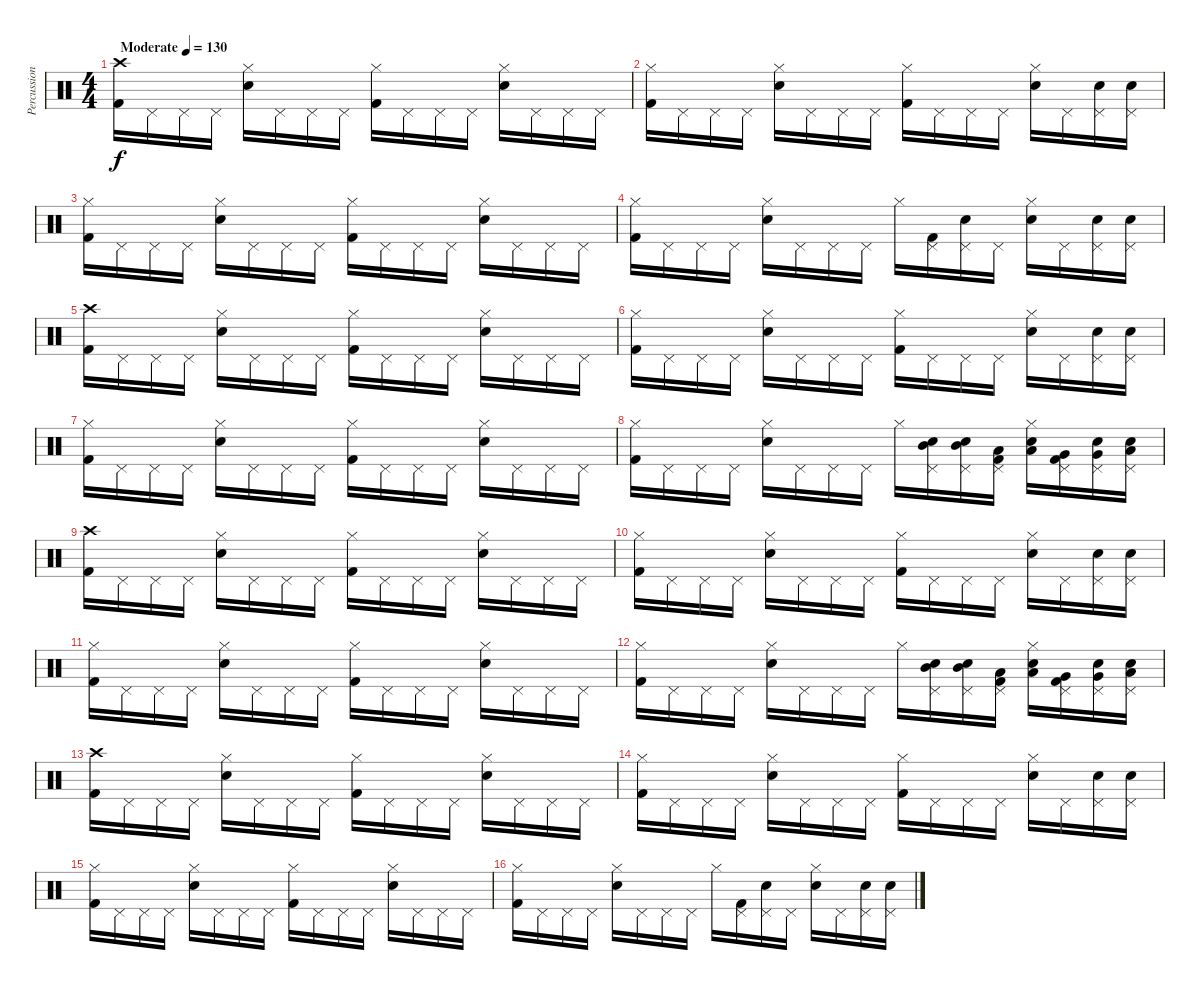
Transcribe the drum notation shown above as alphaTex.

\track ("Percussion" "Percussion") {instrument percussion}
\staff {score}
\articulation defaults
\ts (4 4)
\tempo (130 "Moderate")
\clef neutral
\ks c
("Crash high (hit)" "Kick (hit) 2").16{dy f} "Pedal Hi-Hat (hit)".16 "Pedal Hi-Hat (hit)".16 "Pedal Hi-Hat (hit)".16 ("Hi-Hat (closed)" "Snare (hit) 2").16 "Pedal Hi-Hat (hit)".16 "Pedal Hi-Hat (hit)".16 "Pedal Hi-Hat (hit)".16 ("Hi-Hat (closed)" "Kick (hit) 2").16 "Pedal Hi-Hat (hit)".16 "Pedal Hi-Hat (hit)".16 "Pedal Hi-Hat (hit)".16 ("Hi-Hat (closed)" "Snare (hit) 2").16 "Pedal Hi-Hat (hit)".16 "Pedal Hi-Hat (hit)".16 "Pedal Hi-Hat (hit)".16 |
("Hi-Hat (closed)" "Kick (hit) 2").16 "Pedal Hi-Hat (hit)".16 "Pedal Hi-Hat (hit)".16 "Pedal Hi-Hat (hit)".16 ("Hi-Hat (closed)" "Snare (hit) 2").16 "Pedal Hi-Hat (hit)".16 "Pedal Hi-Hat (hit)".16 "Pedal Hi-Hat (hit)".16 ("Hi-Hat (closed)" "Kick (hit) 2").16 "Pedal Hi-Hat (hit)".16 "Pedal Hi-Hat (hit)".16 "Pedal Hi-Hat (hit)".16 ("Hi-Hat (closed)" "Snare (hit) 2").16 "Pedal Hi-Hat (hit)".16 ("Pedal Hi-Hat (hit)" "Snare (hit) 2").16 ("Pedal Hi-Hat (hit)" "Snare (hit) 2").16 |
("Hi-Hat (closed)" "Kick (hit) 2").16 "Pedal Hi-Hat (hit)".16 "Pedal Hi-Hat (hit)".16 "Pedal Hi-Hat (hit)".16 ("Hi-Hat (closed)" "Snare (hit) 2").16 "Pedal Hi-Hat (hit)".16 "Pedal Hi-Hat (hit)".16 "Pedal Hi-Hat (hit)".16 ("Hi-Hat (closed)" "Kick (hit) 2").16 "Pedal Hi-Hat (hit)".16 "Pedal Hi-Hat (hit)".16 "Pedal Hi-Hat (hit)".16 ("Hi-Hat (closed)" "Snare (hit) 2").16 "Pedal Hi-Hat (hit)".16 "Pedal Hi-Hat (hit)".16 "Pedal Hi-Hat (hit)".16 |
("Hi-Hat (closed)" "Kick (hit) 2").16 "Pedal Hi-Hat (hit)".16 "Pedal Hi-Hat (hit)".16 "Pedal Hi-Hat (hit)".16 ("Hi-Hat (closed)" "Snare (hit) 2").16 "Pedal Hi-Hat (hit)".16 "Pedal Hi-Hat (hit)".16 "Pedal Hi-Hat (hit)".16 "Hi-Hat (closed)".16 ("Pedal Hi-Hat (hit)" "Kick (hit) 2").16 ("Pedal Hi-Hat (hit)" "Snare (hit) 2").16 "Pedal Hi-Hat (hit)".16 ("Hi-Hat (closed)" "Snare (hit) 2").16 "Pedal Hi-Hat (hit)".16 ("Pedal Hi-Hat (hit)" "Snare (hit) 2").16 ("Pedal Hi-Hat (hit)" "Snare (hit) 2").16 |
("Crash high (hit)" "Kick (hit) 2").16 "Pedal Hi-Hat (hit)".16 "Pedal Hi-Hat (hit)".16 "Pedal Hi-Hat (hit)".16 ("Hi-Hat (closed)" "Snare (hit) 2").16 "Pedal Hi-Hat (hit)".16 "Pedal Hi-Hat (hit)".16 "Pedal Hi-Hat (hit)".16 ("Hi-Hat (closed)" "Kick (hit) 2").16 "Pedal Hi-Hat (hit)".16 "Pedal Hi-Hat (hit)".16 "Pedal Hi-Hat (hit)".16 ("Hi-Hat (closed)" "Snare (hit) 2").16 "Pedal Hi-Hat (hit)".16 "Pedal Hi-Hat (hit)".16 "Pedal Hi-Hat (hit)".16 |
("Hi-Hat (closed)" "Kick (hit) 2").16 "Pedal Hi-Hat (hit)".16 "Pedal Hi-Hat (hit)".16 "Pedal Hi-Hat (hit)".16 ("Hi-Hat (closed)" "Snare (hit) 2").16 "Pedal Hi-Hat (hit)".16 "Pedal Hi-Hat (hit)".16 "Pedal Hi-Hat (hit)".16 ("Hi-Hat (closed)" "Kick (hit) 2").16 "Pedal Hi-Hat (hit)".16 "Pedal Hi-Hat (hit)".16 "Pedal Hi-Hat (hit)".16 ("Hi-Hat (closed)" "Snare (hit) 2").16 "Pedal Hi-Hat (hit)".16 ("Pedal Hi-Hat (hit)" "Snare (hit) 2").16 ("Pedal Hi-Hat (hit)" "Snare (hit) 2").16 |
("Hi-Hat (closed)" "Kick (hit) 2").16 "Pedal Hi-Hat (hit)".16 "Pedal Hi-Hat (hit)".16 "Pedal Hi-Hat (hit)".16 ("Hi-Hat (closed)" "Snare (hit) 2").16 "Pedal Hi-Hat (hit)".16 "Pedal Hi-Hat (hit)".16 "Pedal Hi-Hat (hit)".16 ("Hi-Hat (closed)" "Kick (hit) 2").16 "Pedal Hi-Hat (hit)".16 "Pedal Hi-Hat (hit)".16 "Pedal Hi-Hat (hit)".16 ("Hi-Hat (closed)" "Snare (hit) 2").16 "Pedal Hi-Hat (hit)".16 "Pedal Hi-Hat (hit)".16 "Pedal Hi-Hat (hit)".16 |
("Hi-Hat (closed)" "Kick (hit) 2").16 "Pedal Hi-Hat (hit)".16 "Pedal Hi-Hat (hit)".16 "Pedal Hi-Hat (hit)".16 ("Hi-Hat (closed)" "Snare (hit) 2").16 "Pedal Hi-Hat (hit)".16 "Pedal Hi-Hat (hit)".16 "Pedal Hi-Hat (hit)".16 "Hi-Hat (closed)".16 ("Pedal Hi-Hat (hit)" "Mid Tom (hit)" "Snare (hit) 2").16 ("Pedal Hi-Hat (hit)" "Mid Tom (hit)" "Snare (hit) 2").16 ("Pedal Hi-Hat (hit)" "Low Tom (hit)" "Kick (hit) 2").16 ("Hi-Hat (closed)" "Low Tom (hit)" "Snare (hit) 2").16 ("Pedal Hi-Hat (hit)" "Very Low Tom (hit)" "Kick (hit) 2").16 ("Pedal Hi-Hat (hit)" "Very Low Tom (hit)" "Snare (hit) 2").16 ("Pedal Hi-Hat (hit)" "Low Floor Tom (hit)" "Snare (hit) 2").16 |
("Crash high (hit)" "Kick (hit) 2").16 "Pedal Hi-Hat (hit)".16 "Pedal Hi-Hat (hit)".16 "Pedal Hi-Hat (hit)".16 ("Hi-Hat (closed)" "Snare (hit) 2").16 "Pedal Hi-Hat (hit)".16 "Pedal Hi-Hat (hit)".16 "Pedal Hi-Hat (hit)".16 ("Hi-Hat (closed)" "Kick (hit) 2").16 "Pedal Hi-Hat (hit)".16 "Pedal Hi-Hat (hit)".16 "Pedal Hi-Hat (hit)".16 ("Hi-Hat (closed)" "Snare (hit) 2").16 "Pedal Hi-Hat (hit)".16 "Pedal Hi-Hat (hit)".16 "Pedal Hi-Hat (hit)".16 |
("Hi-Hat (closed)" "Kick (hit) 2").16 "Pedal Hi-Hat (hit)".16 "Pedal Hi-Hat (hit)".16 "Pedal Hi-Hat (hit)".16 ("Hi-Hat (closed)" "Snare (hit) 2").16 "Pedal Hi-Hat (hit)".16 "Pedal Hi-Hat (hit)".16 "Pedal Hi-Hat (hit)".16 ("Hi-Hat (closed)" "Kick (hit) 2").16 "Pedal Hi-Hat (hit)".16 "Pedal Hi-Hat (hit)".16 "Pedal Hi-Hat (hit)".16 ("Hi-Hat (closed)" "Snare (hit) 2").16 "Pedal Hi-Hat (hit)".16 ("Pedal Hi-Hat (hit)" "Snare (hit) 2").16 ("Pedal Hi-Hat (hit)" "Snare (hit) 2").16 |
("Hi-Hat (closed)" "Kick (hit) 2").16 "Pedal Hi-Hat (hit)".16 "Pedal Hi-Hat (hit)".16 "Pedal Hi-Hat (hit)".16 ("Hi-Hat (closed)" "Snare (hit) 2").16 "Pedal Hi-Hat (hit)".16 "Pedal Hi-Hat (hit)".16 "Pedal Hi-Hat (hit)".16 ("Hi-Hat (closed)" "Kick (hit) 2").16 "Pedal Hi-Hat (hit)".16 "Pedal Hi-Hat (hit)".16 "Pedal Hi-Hat (hit)".16 ("Hi-Hat (closed)" "Snare (hit) 2").16 "Pedal Hi-Hat (hit)".16 "Pedal Hi-Hat (hit)".16 "Pedal Hi-Hat (hit)".16 |
("Hi-Hat (closed)" "Kick (hit) 2").16 "Pedal Hi-Hat (hit)".16 "Pedal Hi-Hat (hit)".16 "Pedal Hi-Hat (hit)".16 ("Hi-Hat (closed)" "Snare (hit) 2").16 "Pedal Hi-Hat (hit)".16 "Pedal Hi-Hat (hit)".16 "Pedal Hi-Hat (hit)".16 "Hi-Hat (closed)".16 ("Pedal Hi-Hat (hit)" "Mid Tom (hit)" "Snare (hit) 2").16 ("Pedal Hi-Hat (hit)" "Mid Tom (hit)" "Snare (hit) 2").16 ("Pedal Hi-Hat (hit)" "Low Tom (hit)" "Kick (hit) 2").16 ("Hi-Hat (closed)" "Low Tom (hit)" "Snare (hit) 2").16 ("Pedal Hi-Hat (hit)" "Very Low Tom (hit)" "Kick (hit) 2").16 ("Pedal Hi-Hat (hit)" "Very Low Tom (hit)" "Snare (hit) 2").16 ("Pedal Hi-Hat (hit)" "Low Floor Tom (hit)" "Snare (hit) 2").16 |
("Crash high (hit)" "Kick (hit) 2").16 "Pedal Hi-Hat (hit)".16 "Pedal Hi-Hat (hit)".16 "Pedal Hi-Hat (hit)".16 ("Hi-Hat (closed)" "Snare (hit) 2").16 "Pedal Hi-Hat (hit)".16 "Pedal Hi-Hat (hit)".16 "Pedal Hi-Hat (hit)".16 ("Hi-Hat (closed)" "Kick (hit) 2").16 "Pedal Hi-Hat (hit)".16 "Pedal Hi-Hat (hit)".16 "Pedal Hi-Hat (hit)".16 ("Hi-Hat (closed)" "Snare (hit) 2").16 "Pedal Hi-Hat (hit)".16 "Pedal Hi-Hat (hit)".16 "Pedal Hi-Hat (hit)".16 |
("Hi-Hat (closed)" "Kick (hit) 2").16 "Pedal Hi-Hat (hit)".16 "Pedal Hi-Hat (hit)".16 "Pedal Hi-Hat (hit)".16 ("Hi-Hat (closed)" "Snare (hit) 2").16 "Pedal Hi-Hat (hit)".16 "Pedal Hi-Hat (hit)".16 "Pedal Hi-Hat (hit)".16 ("Hi-Hat (closed)" "Kick (hit) 2").16 "Pedal Hi-Hat (hit)".16 "Pedal Hi-Hat (hit)".16 "Pedal Hi-Hat (hit)".16 ("Hi-Hat (closed)" "Snare (hit) 2").16 "Pedal Hi-Hat (hit)".16 ("Pedal Hi-Hat (hit)" "Snare (hit) 2").16 ("Pedal Hi-Hat (hit)" "Snare (hit) 2").16 |
("Hi-Hat (closed)" "Kick (hit) 2").16 "Pedal Hi-Hat (hit)".16 "Pedal Hi-Hat (hit)".16 "Pedal Hi-Hat (hit)".16 ("Hi-Hat (closed)" "Snare (hit) 2").16 "Pedal Hi-Hat (hit)".16 "Pedal Hi-Hat (hit)".16 "Pedal Hi-Hat (hit)".16 ("Hi-Hat (closed)" "Kick (hit) 2").16 "Pedal Hi-Hat (hit)".16 "Pedal Hi-Hat (hit)".16 "Pedal Hi-Hat (hit)".16 ("Hi-Hat (closed)" "Snare (hit) 2").16 "Pedal Hi-Hat (hit)".16 "Pedal Hi-Hat (hit)".16 "Pedal Hi-Hat (hit)".16 |
("Hi-Hat (closed)" "Kick (hit) 2").16 "Pedal Hi-Hat (hit)".16 "Pedal Hi-Hat (hit)".16 "Pedal Hi-Hat (hit)".16 ("Hi-Hat (closed)" "Snare (hit) 2").16 "Pedal Hi-Hat (hit)".16 "Pedal Hi-Hat (hit)".16 "Pedal Hi-Hat (hit)".16 "Hi-Hat (closed)".16 ("Pedal Hi-Hat (hit)" "Kick (hit) 2").16 ("Pedal Hi-Hat (hit)" "Snare (hit) 2").16 "Pedal Hi-Hat (hit)".16 ("Hi-Hat (closed)" "Snare (hit) 2").16 "Pedal Hi-Hat (hit)".16 ("Pedal Hi-Hat (hit)" "Snare (hit) 2").16 ("Pedal Hi-Hat (hit)" "Snare (hit) 2").16
